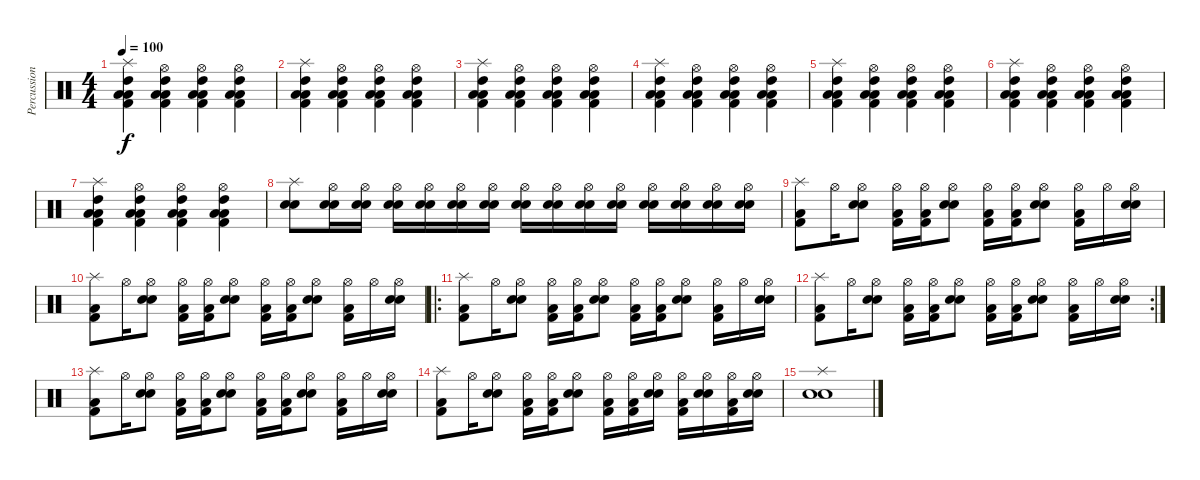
\track ("Percussions" "Percussion") {instrument percussion}
\staff {score}
\articulation defaults
\ts (4 4)
\tempo 100
\clef neutral
\ks c
("Splash (hit)" "Kick (hit) 2" "Low Floor Tom (hit)" "High Tom (hit)" "Low Floor Tom (hit)").4{dy f} ("Hi-Hat (open)" "Kick (hit) 2" "Low Floor Tom (hit)" "High Tom (hit)" "Low Floor Tom (hit)").4 ("Hi-Hat (open)" "Kick (hit) 2" "Low Floor Tom (hit)" "High Tom (hit)" "Low Floor Tom (hit)").4 ("Hi-Hat (open)" "Kick (hit) 2" "Low Floor Tom (hit)" "High Tom (hit)" "Low Floor Tom (hit)").4 |
("Splash (hit)" "Kick (hit) 2" "Low Floor Tom (hit)" "High Tom (hit)" "Low Floor Tom (hit)").4 ("Hi-Hat (open)" "Kick (hit) 2" "Low Floor Tom (hit)" "High Tom (hit)" "Low Floor Tom (hit)").4 ("Hi-Hat (open)" "Kick (hit) 2" "Low Floor Tom (hit)" "High Tom (hit)" "Low Floor Tom (hit)").4 ("Hi-Hat (open)" "Kick (hit) 2" "Low Floor Tom (hit)" "High Tom (hit)" "Low Floor Tom (hit)").4 |
("Splash (hit)" "Kick (hit) 2" "Low Floor Tom (hit)" "High Tom (hit)" "Low Floor Tom (hit)").4 ("Hi-Hat (open)" "Kick (hit) 2" "Low Floor Tom (hit)" "High Tom (hit)" "Low Floor Tom (hit)").4 ("Hi-Hat (open)" "Kick (hit) 2" "Low Floor Tom (hit)" "High Tom (hit)" "Low Floor Tom (hit)").4 ("Hi-Hat (open)" "Kick (hit) 2" "Low Floor Tom (hit)" "High Tom (hit)" "Low Floor Tom (hit)").4 |
("Splash (hit)" "Kick (hit) 2" "Low Floor Tom (hit)" "High Tom (hit)" "Low Floor Tom (hit)").4 ("Hi-Hat (open)" "Kick (hit) 2" "Low Floor Tom (hit)" "High Tom (hit)" "Low Floor Tom (hit)").4 ("Hi-Hat (open)" "Kick (hit) 2" "Low Floor Tom (hit)" "High Tom (hit)" "Low Floor Tom (hit)").4 ("Hi-Hat (open)" "Kick (hit) 2" "Low Floor Tom (hit)" "High Tom (hit)" "Low Floor Tom (hit)").4 |
("Splash (hit)" "Kick (hit) 2" "Low Floor Tom (hit)" "High Tom (hit)" "Low Floor Tom (hit)").4 ("Hi-Hat (open)" "Kick (hit) 2" "Low Floor Tom (hit)" "High Tom (hit)" "Low Floor Tom (hit)").4 ("Hi-Hat (open)" "Kick (hit) 2" "Low Floor Tom (hit)" "High Tom (hit)" "Low Floor Tom (hit)").4 ("Hi-Hat (open)" "Kick (hit) 2" "Low Floor Tom (hit)" "High Tom (hit)" "Low Floor Tom (hit)").4 |
("Splash (hit)" "Kick (hit) 2" "Low Floor Tom (hit)" "High Tom (hit)" "Low Floor Tom (hit)").4 ("Hi-Hat (open)" "Kick (hit) 2" "Low Floor Tom (hit)" "High Tom (hit)" "Low Floor Tom (hit)").4 ("Hi-Hat (open)" "Kick (hit) 2" "Low Floor Tom (hit)" "High Tom (hit)" "Low Floor Tom (hit)").4 ("Hi-Hat (open)" "Kick (hit) 2" "Low Floor Tom (hit)" "High Tom (hit)" "Low Floor Tom (hit)").4 |
("Splash (hit)" "Kick (hit) 2" "Low Floor Tom (hit)" "High Tom (hit)" "Low Floor Tom (hit)").4 ("Hi-Hat (open)" "Kick (hit) 2" "Low Floor Tom (hit)" "High Tom (hit)" "Low Floor Tom (hit)").4 ("Hi-Hat (open)" "Kick (hit) 2" "Low Floor Tom (hit)" "High Tom (hit)" "Low Floor Tom (hit)").4 ("Hi-Hat (open)" "Kick (hit) 2" "Low Floor Tom (hit)" "High Tom (hit)" "Low Floor Tom (hit)").4 |
("Splash (hit)" "Snare (hit) 2" "Electric Snare (hit)").8 ("Hi-Hat (open)" "Snare (hit) 2" "Electric Snare (hit)").16 ("Hi-Hat (open)" "Snare (hit) 2" "Electric Snare (hit)").16 ("Hi-Hat (open)" "Snare (hit) 2" "Electric Snare (hit)").16 ("Hi-Hat (open)" "Snare (hit) 2" "Electric Snare (hit)").16 ("Hi-Hat (open)" "Snare (hit) 2" "Electric Snare (hit)").16 ("Hi-Hat (open)" "Snare (hit) 2" "Electric Snare (hit)").16 ("Hi-Hat (open)" "Snare (hit) 2" "Electric Snare (hit)").16 ("Hi-Hat (open)" "Snare (hit) 2" "Electric Snare (hit)").16 ("Hi-Hat (open)" "Snare (hit) 2" "Electric Snare (hit)").16 ("Hi-Hat (open)" "Snare (hit) 2" "Electric Snare (hit)").16 ("Hi-Hat (open)" "Snare (hit) 2" "Electric Snare (hit)").16 ("Hi-Hat (open)" "Snare (hit) 2" "Electric Snare (hit)").16 ("Hi-Hat (open)" "Snare (hit) 2" "Electric Snare (hit)").16 ("Hi-Hat (open)" "Snare (hit) 2" "Electric Snare (hit)").16 |
("Splash (hit)" "Kick (hit) 2" "Low Floor Tom (hit)").8 "Hi-Hat (open)".16 ("Hi-Hat (open)" "Snare (hit) 2" "Electric Snare (hit)").8 ("Hi-Hat (open)" "Kick (hit) 2" "Low Floor Tom (hit)").16 ("Hi-Hat (open)" "Kick (hit) 2" "Low Floor Tom (hit)").16 ("Hi-Hat (open)" "Snare (hit) 2" "Electric Snare (hit)").8 ("Hi-Hat (open)" "Kick (hit) 2" "Low Floor Tom (hit)").16 ("Hi-Hat (open)" "Kick (hit) 2" "Low Floor Tom (hit)").16 ("Hi-Hat (open)" "Snare (hit) 2" "Electric Snare (hit)").8 ("Hi-Hat (open)" "Kick (hit) 2" "Low Floor Tom (hit)").16 "Hi-Hat (open)".16 ("Hi-Hat (open)" "Snare (hit) 2" "Electric Snare (hit)").16 |
("Splash (hit)" "Kick (hit) 2" "Low Floor Tom (hit)").8 "Hi-Hat (open)".16 ("Hi-Hat (open)" "Snare (hit) 2" "Electric Snare (hit)").8 ("Hi-Hat (open)" "Kick (hit) 2" "Low Floor Tom (hit)").16 ("Hi-Hat (open)" "Kick (hit) 2" "Low Floor Tom (hit)").16 ("Hi-Hat (open)" "Snare (hit) 2" "Electric Snare (hit)").8 ("Hi-Hat (open)" "Kick (hit) 2" "Low Floor Tom (hit)").16 ("Hi-Hat (open)" "Kick (hit) 2" "Low Floor Tom (hit)").16 ("Hi-Hat (open)" "Snare (hit) 2" "Electric Snare (hit)").8 ("Hi-Hat (open)" "Kick (hit) 2" "Low Floor Tom (hit)").16 "Hi-Hat (open)".16 ("Hi-Hat (open)" "Snare (hit) 2" "Electric Snare (hit)").16 |
\ro
("Splash (hit)" "Kick (hit) 2" "Low Floor Tom (hit)").8 "Hi-Hat (open)".16 ("Hi-Hat (open)" "Snare (hit) 2" "Electric Snare (hit)").8 ("Hi-Hat (open)" "Kick (hit) 2" "Low Floor Tom (hit)").16 ("Hi-Hat (open)" "Kick (hit) 2" "Low Floor Tom (hit)").16 ("Hi-Hat (open)" "Snare (hit) 2" "Electric Snare (hit)").8 ("Hi-Hat (open)" "Kick (hit) 2" "Low Floor Tom (hit)").16 ("Hi-Hat (open)" "Kick (hit) 2" "Low Floor Tom (hit)").16 ("Hi-Hat (open)" "Snare (hit) 2" "Electric Snare (hit)").8 ("Hi-Hat (open)" "Kick (hit) 2" "Low Floor Tom (hit)").16 "Hi-Hat (open)".16 ("Hi-Hat (open)" "Snare (hit) 2" "Electric Snare (hit)").16 |
\rc 2
("Splash (hit)" "Kick (hit) 2" "Low Floor Tom (hit)").8 "Hi-Hat (open)".16 ("Hi-Hat (open)" "Snare (hit) 2" "Electric Snare (hit)").8 ("Hi-Hat (open)" "Kick (hit) 2" "Low Floor Tom (hit)").16 ("Hi-Hat (open)" "Kick (hit) 2" "Low Floor Tom (hit)").16 ("Hi-Hat (open)" "Snare (hit) 2" "Electric Snare (hit)").8 ("Hi-Hat (open)" "Kick (hit) 2" "Low Floor Tom (hit)").16 ("Hi-Hat (open)" "Kick (hit) 2" "Low Floor Tom (hit)").16 ("Hi-Hat (open)" "Snare (hit) 2" "Electric Snare (hit)").8 ("Hi-Hat (open)" "Kick (hit) 2" "Low Floor Tom (hit)").16 "Hi-Hat (open)".16 ("Hi-Hat (open)" "Snare (hit) 2" "Electric Snare (hit)").16 |
("Splash (hit)" "Kick (hit) 2" "Low Floor Tom (hit)").8 "Hi-Hat (open)".16 ("Hi-Hat (open)" "Snare (hit) 2" "Electric Snare (hit)").8 ("Hi-Hat (open)" "Kick (hit) 2" "Low Floor Tom (hit)").16 ("Hi-Hat (open)" "Kick (hit) 2" "Low Floor Tom (hit)").16 ("Hi-Hat (open)" "Snare (hit) 2" "Electric Snare (hit)").8 ("Hi-Hat (open)" "Kick (hit) 2" "Low Floor Tom (hit)").16 ("Hi-Hat (open)" "Kick (hit) 2" "Low Floor Tom (hit)").16 ("Hi-Hat (open)" "Snare (hit) 2" "Electric Snare (hit)").8 ("Hi-Hat (open)" "Kick (hit) 2" "Low Floor Tom (hit)").16 "Hi-Hat (open)".16 ("Hi-Hat (open)" "Snare (hit) 2" "Electric Snare (hit)").16 |
("Splash (hit)" "Kick (hit) 2" "Low Floor Tom (hit)").8 "Hi-Hat (open)".16 ("Hi-Hat (open)" "Snare (hit) 2" "Electric Snare (hit)").8 ("Hi-Hat (open)" "Kick (hit) 2" "Low Floor Tom (hit)").16 ("Hi-Hat (open)" "Kick (hit) 2" "Low Floor Tom (hit)").16 ("Hi-Hat (open)" "Snare (hit) 2" "Electric Snare (hit)").8 ("Hi-Hat (open)" "Kick (hit) 2" "Low Floor Tom (hit)").16 ("Hi-Hat (open)" "Kick (hit) 2" "Low Floor Tom (hit)").16 ("Hi-Hat (open)" "Snare (hit) 2" "Electric Snare (hit)").16 ("Hi-Hat (open)" "Kick (hit) 2" "Low Floor Tom (hit)").16 ("Hi-Hat (open)" "Snare (hit) 2" "Electric Snare (hit)").16 ("Hi-Hat (open)" "Kick (hit) 2" "Low Floor Tom (hit)").16 ("Hi-Hat (open)" "Snare (hit) 2" "Electric Snare (hit)").16 |
("Splash (hit)" "Snare (hit) 2" "Electric Snare (hit)").1
